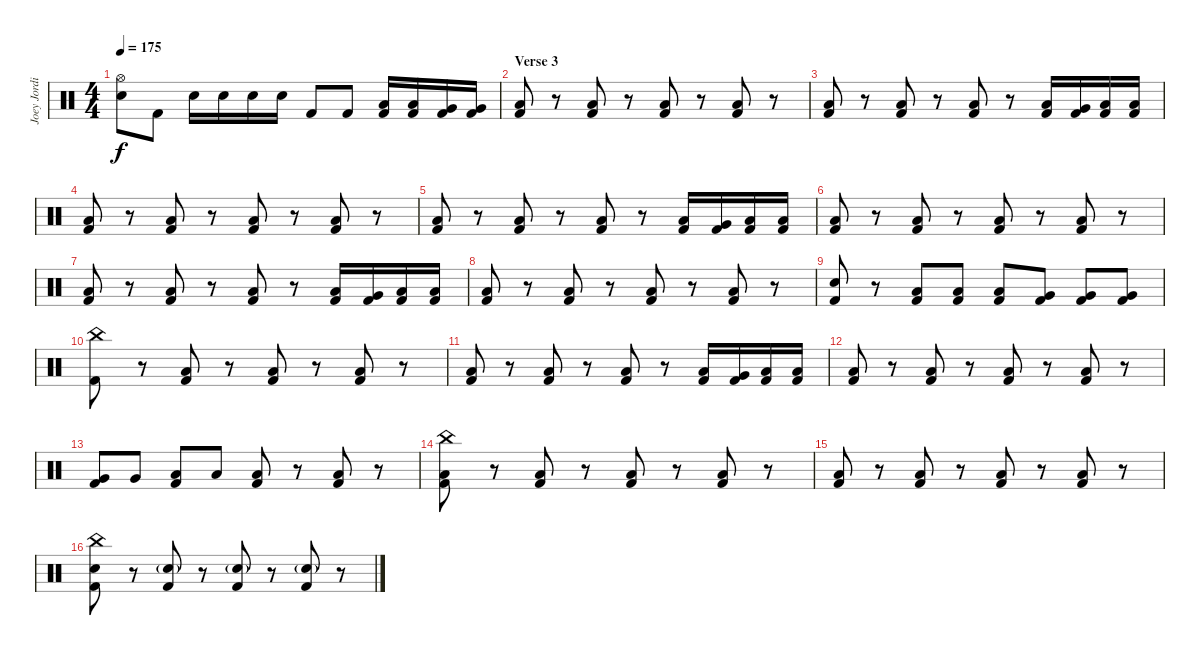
\track ("Joey Jordison (Drums)" "Joey Jordi") {instrument percussion}
\staff {score}
\articulation defaults
\ts (4 4)
\tempo 175
\clef neutral
\ks c
("Hi-Hat (open)" "Electric Snare (hit)").8{dy f} "Kick (hit) 2".8 "Electric Snare (hit)".16 "Electric Snare (hit)".16 "Electric Snare (hit)".16 "Electric Snare (hit)".16 "Kick (hit) 2".8 "Kick (hit) 2".8 ("Low Floor Tom (hit)" "Kick (hit) 2").16 ("Low Floor Tom (hit)" "Kick (hit) 2").16 ("Very Low Tom (hit)" "Kick (hit) 2").16 ("Very Low Tom (hit)" "Kick (hit) 2").16 |
\section ("" "Verse 3")
("Low Floor Tom (hit)" "Kick (hit) 2").8 r.8 ("Low Floor Tom (hit)" "Kick (hit) 2").8 r.8 ("Low Floor Tom (hit)" "Kick (hit) 2").8 r.8 ("Low Floor Tom (hit)" "Kick (hit) 2").8 r.8 |
("Low Floor Tom (hit)" "Kick (hit) 2").8 r.8 ("Low Floor Tom (hit)" "Kick (hit) 2").8 r.8 ("Low Floor Tom (hit)" "Kick (hit) 2").8 r.8 ("Low Floor Tom (hit)" "Kick (hit) 2").16 ("Very Low Tom (hit)" "Kick (hit) 2").16 ("Low Floor Tom (hit)" "Kick (hit) 2").16 ("Low Floor Tom (hit)" "Kick (hit) 2").16 |
("Low Floor Tom (hit)" "Kick (hit) 2").8 r.8 ("Low Floor Tom (hit)" "Kick (hit) 2").8 r.8 ("Low Floor Tom (hit)" "Kick (hit) 2").8 r.8 ("Low Floor Tom (hit)" "Kick (hit) 2").8 r.8 |
("Low Floor Tom (hit)" "Kick (hit) 2").8 r.8 ("Low Floor Tom (hit)" "Kick (hit) 2").8 r.8 ("Low Floor Tom (hit)" "Kick (hit) 2").8 r.8 ("Low Floor Tom (hit)" "Kick (hit) 2").16 ("Very Low Tom (hit)" "Kick (hit) 2").16 ("Low Floor Tom (hit)" "Kick (hit) 2").16 ("Low Floor Tom (hit)" "Kick (hit) 2").16 |
("Low Floor Tom (hit)" "Kick (hit) 2").8 r.8 ("Low Floor Tom (hit)" "Kick (hit) 2").8 r.8 ("Low Floor Tom (hit)" "Kick (hit) 2").8 r.8 ("Low Floor Tom (hit)" "Kick (hit) 2").8 r.8 |
("Low Floor Tom (hit)" "Kick (hit) 2").8 r.8 ("Low Floor Tom (hit)" "Kick (hit) 2").8 r.8 ("Low Floor Tom (hit)" "Kick (hit) 2").8 r.8 ("Low Floor Tom (hit)" "Kick (hit) 2").16 ("Very Low Tom (hit)" "Kick (hit) 2").16 ("Low Floor Tom (hit)" "Kick (hit) 2").16 ("Low Floor Tom (hit)" "Kick (hit) 2").16 |
("Low Floor Tom (hit)" "Kick (hit) 2").8 r.8 ("Low Floor Tom (hit)" "Kick (hit) 2").8 r.8 ("Low Floor Tom (hit)" "Kick (hit) 2").8 r.8 ("Low Floor Tom (hit)" "Kick (hit) 2").8 r.8 |
("Electric Snare (hit)" "Kick (hit) 2").8 r.8 ("Low Floor Tom (hit)" "Kick (hit) 2").8 ("Low Floor Tom (hit)" "Kick (hit) 2").8 ("Low Floor Tom (hit)" "Kick (hit) 2").8 ("Very Low Tom (hit)" "Kick (hit) 2").8 ("Very Low Tom (hit)" "Kick (hit) 2").8 ("Very Low Tom (hit)" "Kick (hit) 2").8 |
("China (hit)" "Kick (hit) 2").8 r.8 ("Low Floor Tom (hit)" "Kick (hit) 2").8 r.8 ("Low Floor Tom (hit)" "Kick (hit) 2").8 r.8 ("Low Floor Tom (hit)" "Kick (hit) 2").8 r.8 |
("Low Floor Tom (hit)" "Kick (hit) 2").8 r.8 ("Low Floor Tom (hit)" "Kick (hit) 2").8 r.8 ("Low Floor Tom (hit)" "Kick (hit) 2").8 r.8 ("Low Floor Tom (hit)" "Kick (hit) 2").16 ("Very Low Tom (hit)" "Kick (hit) 2").16 ("Low Floor Tom (hit)" "Kick (hit) 2").16 ("Low Floor Tom (hit)" "Kick (hit) 2").16 |
("Low Floor Tom (hit)" "Kick (hit) 2").8 r.8 ("Low Floor Tom (hit)" "Kick (hit) 2").8 r.8 ("Low Floor Tom (hit)" "Kick (hit) 2").8 r.8 ("Low Floor Tom (hit)" "Kick (hit) 2").8 r.8 |
("Very Low Tom (hit)" "Kick (hit) 2").8 "Very Low Tom (hit)".8 ("Low Floor Tom (hit)" "Kick (hit) 2").8 "Low Floor Tom (hit)".8 ("Low Floor Tom (hit)" "Kick (hit) 2").8 r.8 ("Low Floor Tom (hit)" "Kick (hit) 2").8 r.8 |
("China (hit)" "Low Floor Tom (hit)" "Kick (hit) 2").8 r.8 ("Low Floor Tom (hit)" "Kick (hit) 2").8 r.8 ("Low Floor Tom (hit)" "Kick (hit) 2").8 r.8 ("Low Floor Tom (hit)" "Kick (hit) 2").8 r.8 |
("Low Floor Tom (hit)" "Kick (hit) 2").8 r.8 ("Low Floor Tom (hit)" "Kick (hit) 2").8 r.8 ("Low Floor Tom (hit)" "Kick (hit) 2").8 r.8 ("Low Floor Tom (hit)" "Kick (hit) 2").8 r.8 |
("China (hit)" "Electric Snare (hit)" "Kick (hit) 2").8 r.8 ("Electric Snare (hit)"{g} "Kick (hit) 2").8 r.8 ("Electric Snare (hit)"{g} "Kick (hit) 2").8 r.8 ("Electric Snare (hit)"{g} "Kick (hit) 2").8 r.8
